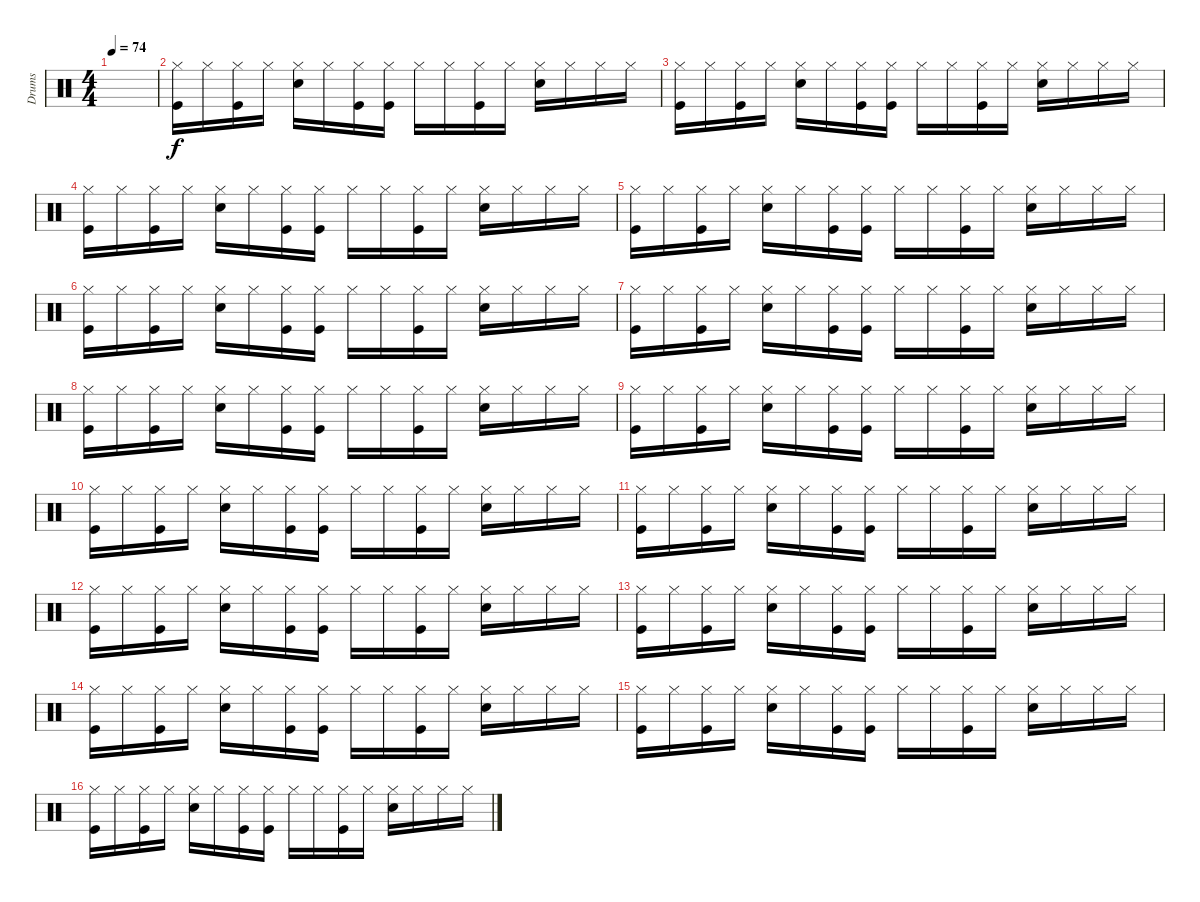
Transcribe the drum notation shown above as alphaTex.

\track ("Drums" "Drums") {instrument percussion}
\staff {score}
\articulation defaults
\ts (4 4)
\tempo 74
\clef neutral
\ks c
|
("Kick (hit)" "Hi-Hat (closed)").16 "Hi-Hat (closed)".16 ("Hi-Hat (closed)" "Kick (hit)").16 "Hi-Hat (closed)".16 ("Snare (hit) 2" "Hi-Hat (closed)").16 "Hi-Hat (closed)".16 ("Hi-Hat (closed)" "Kick (hit)").16 ("Hi-Hat (closed)" "Kick (hit)").16 "Hi-Hat (closed)".16 "Hi-Hat (closed)".16 ("Hi-Hat (closed)" "Kick (hit)").16 "Hi-Hat (closed)".16 ("Hi-Hat (closed)" "Snare (hit) 2").16 "Hi-Hat (closed)".16 "Hi-Hat (closed)".16 "Hi-Hat (closed)".16 |
("Kick (hit)" "Hi-Hat (closed)").16 "Hi-Hat (closed)".16 ("Hi-Hat (closed)" "Kick (hit)").16 "Hi-Hat (closed)".16 ("Snare (hit) 2" "Hi-Hat (closed)").16 "Hi-Hat (closed)".16 ("Hi-Hat (closed)" "Kick (hit)").16 ("Hi-Hat (closed)" "Kick (hit)").16 "Hi-Hat (closed)".16 "Hi-Hat (closed)".16 ("Hi-Hat (closed)" "Kick (hit)").16 "Hi-Hat (closed)".16 ("Hi-Hat (closed)" "Snare (hit) 2").16 "Hi-Hat (closed)".16 "Hi-Hat (closed)".16 "Hi-Hat (closed)".16 |
("Kick (hit)" "Hi-Hat (closed)").16 "Hi-Hat (closed)".16 ("Hi-Hat (closed)" "Kick (hit)").16 "Hi-Hat (closed)".16 ("Snare (hit) 2" "Hi-Hat (closed)").16 "Hi-Hat (closed)".16 ("Hi-Hat (closed)" "Kick (hit)").16 ("Hi-Hat (closed)" "Kick (hit)").16 "Hi-Hat (closed)".16 "Hi-Hat (closed)".16 ("Hi-Hat (closed)" "Kick (hit)").16 "Hi-Hat (closed)".16 ("Hi-Hat (closed)" "Snare (hit) 2").16 "Hi-Hat (closed)".16 "Hi-Hat (closed)".16 "Hi-Hat (closed)".16 |
("Kick (hit)" "Hi-Hat (closed)").16 "Hi-Hat (closed)".16 ("Hi-Hat (closed)" "Kick (hit)").16 "Hi-Hat (closed)".16 ("Snare (hit) 2" "Hi-Hat (closed)").16 "Hi-Hat (closed)".16 ("Hi-Hat (closed)" "Kick (hit)").16 ("Hi-Hat (closed)" "Kick (hit)").16 "Hi-Hat (closed)".16 "Hi-Hat (closed)".16 ("Hi-Hat (closed)" "Kick (hit)").16 "Hi-Hat (closed)".16 ("Hi-Hat (closed)" "Snare (hit) 2").16 "Hi-Hat (closed)".16 "Hi-Hat (closed)".16 "Hi-Hat (closed)".16 |
("Kick (hit)" "Hi-Hat (closed)").16 "Hi-Hat (closed)".16 ("Hi-Hat (closed)" "Kick (hit)").16 "Hi-Hat (closed)".16 ("Snare (hit) 2" "Hi-Hat (closed)").16 "Hi-Hat (closed)".16 ("Hi-Hat (closed)" "Kick (hit)").16 ("Hi-Hat (closed)" "Kick (hit)").16 "Hi-Hat (closed)".16 "Hi-Hat (closed)".16 ("Hi-Hat (closed)" "Kick (hit)").16 "Hi-Hat (closed)".16 ("Hi-Hat (closed)" "Snare (hit) 2").16 "Hi-Hat (closed)".16 "Hi-Hat (closed)".16 "Hi-Hat (closed)".16 |
("Kick (hit)" "Hi-Hat (closed)").16 "Hi-Hat (closed)".16 ("Hi-Hat (closed)" "Kick (hit)").16 "Hi-Hat (closed)".16 ("Snare (hit) 2" "Hi-Hat (closed)").16 "Hi-Hat (closed)".16 ("Hi-Hat (closed)" "Kick (hit)").16 ("Hi-Hat (closed)" "Kick (hit)").16 "Hi-Hat (closed)".16 "Hi-Hat (closed)".16 ("Hi-Hat (closed)" "Kick (hit)").16 "Hi-Hat (closed)".16 ("Hi-Hat (closed)" "Snare (hit) 2").16 "Hi-Hat (closed)".16 "Hi-Hat (closed)".16 "Hi-Hat (closed)".16 |
("Kick (hit)" "Hi-Hat (closed)").16 "Hi-Hat (closed)".16 ("Hi-Hat (closed)" "Kick (hit)").16 "Hi-Hat (closed)".16 ("Snare (hit) 2" "Hi-Hat (closed)").16 "Hi-Hat (closed)".16 ("Hi-Hat (closed)" "Kick (hit)").16 ("Hi-Hat (closed)" "Kick (hit)").16 "Hi-Hat (closed)".16 "Hi-Hat (closed)".16 ("Hi-Hat (closed)" "Kick (hit)").16 "Hi-Hat (closed)".16 ("Hi-Hat (closed)" "Snare (hit) 2").16 "Hi-Hat (closed)".16 "Hi-Hat (closed)".16 "Hi-Hat (closed)".16 |
("Kick (hit)" "Hi-Hat (closed)").16 "Hi-Hat (closed)".16 ("Hi-Hat (closed)" "Kick (hit)").16 "Hi-Hat (closed)".16 ("Snare (hit) 2" "Hi-Hat (closed)").16 "Hi-Hat (closed)".16 ("Hi-Hat (closed)" "Kick (hit)").16 ("Hi-Hat (closed)" "Kick (hit)").16 "Hi-Hat (closed)".16 "Hi-Hat (closed)".16 ("Hi-Hat (closed)" "Kick (hit)").16 "Hi-Hat (closed)".16 ("Hi-Hat (closed)" "Snare (hit) 2").16 "Hi-Hat (closed)".16 "Hi-Hat (closed)".16 "Hi-Hat (closed)".16 |
("Kick (hit)" "Hi-Hat (closed)").16 "Hi-Hat (closed)".16 ("Hi-Hat (closed)" "Kick (hit)").16 "Hi-Hat (closed)".16 ("Snare (hit) 2" "Hi-Hat (closed)").16 "Hi-Hat (closed)".16 ("Hi-Hat (closed)" "Kick (hit)").16 ("Hi-Hat (closed)" "Kick (hit)").16 "Hi-Hat (closed)".16 "Hi-Hat (closed)".16 ("Hi-Hat (closed)" "Kick (hit)").16 "Hi-Hat (closed)".16 ("Hi-Hat (closed)" "Snare (hit) 2").16 "Hi-Hat (closed)".16 "Hi-Hat (closed)".16 "Hi-Hat (closed)".16 |
("Kick (hit)" "Hi-Hat (closed)").16 "Hi-Hat (closed)".16 ("Hi-Hat (closed)" "Kick (hit)").16 "Hi-Hat (closed)".16 ("Snare (hit) 2" "Hi-Hat (closed)").16 "Hi-Hat (closed)".16 ("Hi-Hat (closed)" "Kick (hit)").16 ("Hi-Hat (closed)" "Kick (hit)").16 "Hi-Hat (closed)".16 "Hi-Hat (closed)".16 ("Hi-Hat (closed)" "Kick (hit)").16 "Hi-Hat (closed)".16 ("Hi-Hat (closed)" "Snare (hit) 2").16 "Hi-Hat (closed)".16 "Hi-Hat (closed)".16 "Hi-Hat (closed)".16 |
("Kick (hit)" "Hi-Hat (closed)").16 "Hi-Hat (closed)".16 ("Hi-Hat (closed)" "Kick (hit)").16 "Hi-Hat (closed)".16 ("Snare (hit) 2" "Hi-Hat (closed)").16 "Hi-Hat (closed)".16 ("Hi-Hat (closed)" "Kick (hit)").16 ("Hi-Hat (closed)" "Kick (hit)").16 "Hi-Hat (closed)".16 "Hi-Hat (closed)".16 ("Hi-Hat (closed)" "Kick (hit)").16 "Hi-Hat (closed)".16 ("Hi-Hat (closed)" "Snare (hit) 2").16 "Hi-Hat (closed)".16 "Hi-Hat (closed)".16 "Hi-Hat (closed)".16 |
("Kick (hit)" "Hi-Hat (closed)").16 "Hi-Hat (closed)".16 ("Hi-Hat (closed)" "Kick (hit)").16 "Hi-Hat (closed)".16 ("Snare (hit) 2" "Hi-Hat (closed)").16 "Hi-Hat (closed)".16 ("Hi-Hat (closed)" "Kick (hit)").16 ("Hi-Hat (closed)" "Kick (hit)").16 "Hi-Hat (closed)".16 "Hi-Hat (closed)".16 ("Hi-Hat (closed)" "Kick (hit)").16 "Hi-Hat (closed)".16 ("Hi-Hat (closed)" "Snare (hit) 2").16 "Hi-Hat (closed)".16 "Hi-Hat (closed)".16 "Hi-Hat (closed)".16 |
("Kick (hit)" "Hi-Hat (closed)").16 "Hi-Hat (closed)".16 ("Hi-Hat (closed)" "Kick (hit)").16 "Hi-Hat (closed)".16 ("Snare (hit) 2" "Hi-Hat (closed)").16 "Hi-Hat (closed)".16 ("Hi-Hat (closed)" "Kick (hit)").16 ("Hi-Hat (closed)" "Kick (hit)").16 "Hi-Hat (closed)".16 "Hi-Hat (closed)".16 ("Hi-Hat (closed)" "Kick (hit)").16 "Hi-Hat (closed)".16 ("Hi-Hat (closed)" "Snare (hit) 2").16 "Hi-Hat (closed)".16 "Hi-Hat (closed)".16 "Hi-Hat (closed)".16 |
("Kick (hit)" "Hi-Hat (closed)").16 "Hi-Hat (closed)".16 ("Hi-Hat (closed)" "Kick (hit)").16 "Hi-Hat (closed)".16 ("Snare (hit) 2" "Hi-Hat (closed)").16 "Hi-Hat (closed)".16 ("Hi-Hat (closed)" "Kick (hit)").16 ("Hi-Hat (closed)" "Kick (hit)").16 "Hi-Hat (closed)".16 "Hi-Hat (closed)".16 ("Hi-Hat (closed)" "Kick (hit)").16 "Hi-Hat (closed)".16 ("Hi-Hat (closed)" "Snare (hit) 2").16 "Hi-Hat (closed)".16 "Hi-Hat (closed)".16 "Hi-Hat (closed)".16 |
("Kick (hit)" "Hi-Hat (closed)").16 "Hi-Hat (closed)".16 ("Hi-Hat (closed)" "Kick (hit)").16 "Hi-Hat (closed)".16 ("Snare (hit) 2" "Hi-Hat (closed)").16 "Hi-Hat (closed)".16 ("Hi-Hat (closed)" "Kick (hit)").16 ("Hi-Hat (closed)" "Kick (hit)").16 "Hi-Hat (closed)".16 "Hi-Hat (closed)".16 ("Hi-Hat (closed)" "Kick (hit)").16 "Hi-Hat (closed)".16 ("Hi-Hat (closed)" "Snare (hit) 2").16 "Hi-Hat (closed)".16 "Hi-Hat (closed)".16 "Hi-Hat (closed)".16
